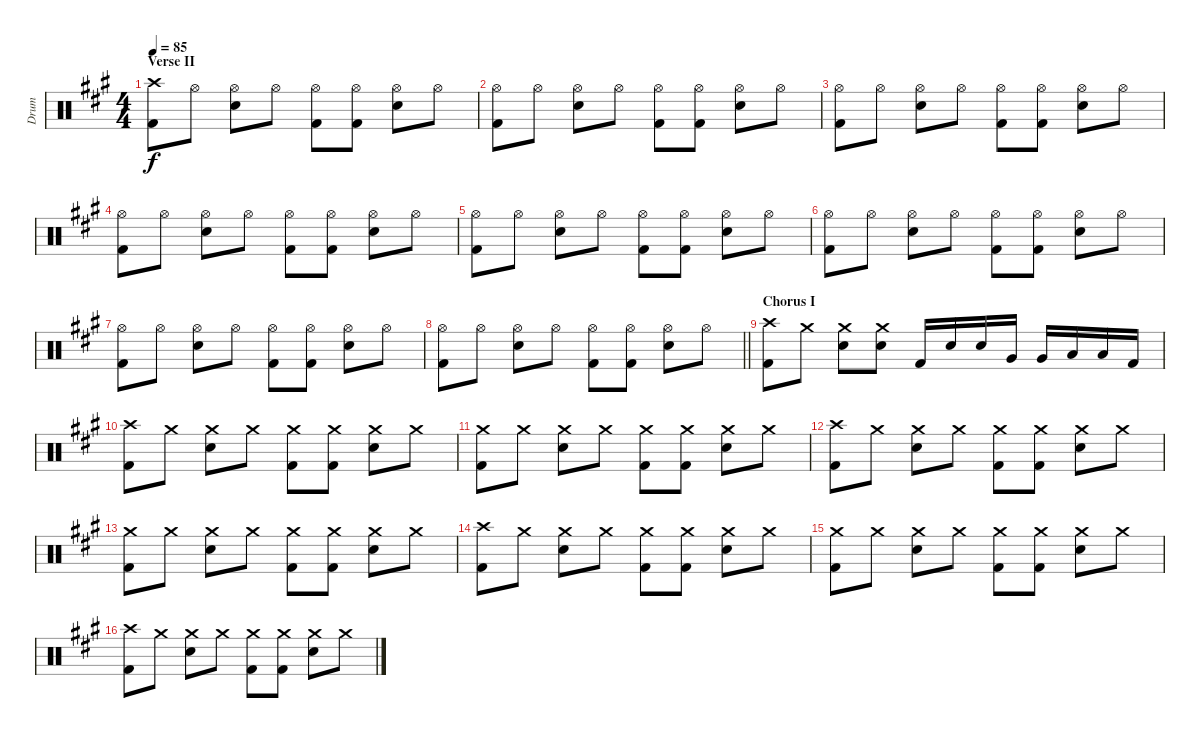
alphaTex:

\track ("Drum" "Drum") {instrument percussion}
\staff {score}
\articulation defaults
\ts (4 4)
\section ("" "Verse II")
\tempo 85
\clef neutral
\ks a
("Crash high (hit)" "Kick (hit) 2").8{dy f} "Hi-Hat (open)".8 ("Hi-Hat (open)" "Snare (hit) 2").8 "Hi-Hat (open)".8 ("Hi-Hat (open)" "Kick (hit) 2").8 ("Hi-Hat (open)" "Kick (hit) 2").8 ("Hi-Hat (open)" "Snare (hit) 2").8 "Hi-Hat (open)".8 |
("Hi-Hat (open)" "Kick (hit) 2").8 "Hi-Hat (open)".8 ("Hi-Hat (open)" "Snare (hit) 2").8 "Hi-Hat (open)".8 ("Hi-Hat (open)" "Kick (hit) 2").8 ("Hi-Hat (open)" "Kick (hit) 2").8 ("Hi-Hat (open)" "Snare (hit) 2").8 "Hi-Hat (open)".8 |
("Hi-Hat (open)" "Kick (hit) 2").8 "Hi-Hat (open)".8 ("Hi-Hat (open)" "Snare (hit) 2").8 "Hi-Hat (open)".8 ("Hi-Hat (open)" "Kick (hit) 2").8 ("Hi-Hat (open)" "Kick (hit) 2").8 ("Hi-Hat (open)" "Snare (hit) 2").8 "Hi-Hat (open)".8 |
("Hi-Hat (open)" "Kick (hit) 2").8 "Hi-Hat (open)".8 ("Hi-Hat (open)" "Snare (hit) 2").8 "Hi-Hat (open)".8 ("Hi-Hat (open)" "Kick (hit) 2").8 ("Hi-Hat (open)" "Kick (hit) 2").8 ("Hi-Hat (open)" "Snare (hit) 2").8 "Hi-Hat (open)".8 |
("Hi-Hat (open)" "Kick (hit) 2").8 "Hi-Hat (open)".8 ("Hi-Hat (open)" "Snare (hit) 2").8 "Hi-Hat (open)".8 ("Hi-Hat (open)" "Kick (hit) 2").8 ("Hi-Hat (open)" "Kick (hit) 2").8 ("Hi-Hat (open)" "Snare (hit) 2").8 "Hi-Hat (open)".8 |
("Hi-Hat (open)" "Kick (hit) 2").8 "Hi-Hat (open)".8 ("Hi-Hat (open)" "Snare (hit) 2").8 "Hi-Hat (open)".8 ("Hi-Hat (open)" "Kick (hit) 2").8 ("Hi-Hat (open)" "Kick (hit) 2").8 ("Hi-Hat (open)" "Snare (hit) 2").8 "Hi-Hat (open)".8 |
("Hi-Hat (open)" "Kick (hit) 2").8 "Hi-Hat (open)".8 ("Hi-Hat (open)" "Snare (hit) 2").8 "Hi-Hat (open)".8 ("Hi-Hat (open)" "Kick (hit) 2").8 ("Hi-Hat (open)" "Kick (hit) 2").8 ("Hi-Hat (open)" "Snare (hit) 2").8 "Hi-Hat (open)".8 |
\barLineRight lightlight
("Hi-Hat (open)" "Kick (hit) 2").8 "Hi-Hat (open)".8 ("Hi-Hat (open)" "Snare (hit) 2").8 "Hi-Hat (open)".8 ("Hi-Hat (open)" "Kick (hit) 2").8 ("Hi-Hat (open)" "Kick (hit) 2").8 ("Hi-Hat (open)" "Snare (hit) 2").8 "Hi-Hat (open)".8 |
\section ("" "Chorus I")
("Crash high (hit)" "Kick (hit) 2").8 "Crash medium (hit)".8 ("Snare (hit) 2" "Crash medium (hit)").8 ("Snare (hit) 2" "Crash medium (hit)").8 "Kick (hit) 2".16 "Snare (hit) 2".16 "Snare (hit) 2".16 "Very Low Tom (hit)".16 "Very Low Tom (hit)".16 "Low Floor Tom (hit)".16 "Low Floor Tom (hit)".16 "Kick (hit) 2".16 |
("Crash high (hit)" "Kick (hit) 2").8 "Crash medium (hit)".8 ("Crash medium (hit)" "Snare (hit) 2").8 "Crash medium (hit)".8 ("Crash medium (hit)" "Kick (hit) 2").8 ("Crash medium (hit)" "Kick (hit) 2").8 ("Crash medium (hit)" "Snare (hit) 2").8 "Crash medium (hit)".8 |
("Crash medium (hit)" "Kick (hit) 2").8 "Crash medium (hit)".8 ("Crash medium (hit)" "Snare (hit) 2").8 "Crash medium (hit)".8 ("Crash medium (hit)" "Kick (hit) 2").8 ("Crash medium (hit)" "Kick (hit) 2").8 ("Crash medium (hit)" "Snare (hit) 2").8 "Crash medium (hit)".8 |
("Crash high (hit)" "Kick (hit) 2").8 "Crash medium (hit)".8 ("Snare (hit) 2" "Crash medium (hit)").8 "Crash medium (hit)".8 ("Kick (hit) 2" "Crash medium (hit)").8 ("Kick (hit) 2" "Crash medium (hit)").8 ("Snare (hit) 2" "Crash medium (hit)").8 "Crash medium (hit)".8 |
("Crash medium (hit)" "Kick (hit) 2").8 "Crash medium (hit)".8 ("Snare (hit) 2" "Crash medium (hit)").8 "Crash medium (hit)".8 ("Kick (hit) 2" "Crash medium (hit)").8 ("Kick (hit) 2" "Crash medium (hit)").8 ("Snare (hit) 2" "Crash medium (hit)").8 "Crash medium (hit)".8 |
("Crash high (hit)" "Kick (hit) 2").8 "Crash medium (hit)".8 ("Snare (hit) 2" "Crash medium (hit)").8 "Crash medium (hit)".8 ("Crash medium (hit)" "Kick (hit) 2").8 ("Crash medium (hit)" "Kick (hit) 2").8 ("Crash medium (hit)" "Snare (hit) 2").8 "Crash medium (hit)".8 |
("Crash medium (hit)" "Kick (hit) 2").8 "Crash medium (hit)".8 ("Crash medium (hit)" "Snare (hit) 2").8 "Crash medium (hit)".8 ("Crash medium (hit)" "Kick (hit) 2").8 ("Crash medium (hit)" "Kick (hit) 2").8 ("Crash medium (hit)" "Snare (hit) 2").8 "Crash medium (hit)".8 |
("Crash high (hit)" "Kick (hit) 2").8 "Crash medium (hit)".8 ("Crash medium (hit)" "Snare (hit) 2").8 "Crash medium (hit)".8 ("Crash medium (hit)" "Kick (hit) 2").8 ("Crash medium (hit)" "Kick (hit) 2").8 ("Crash medium (hit)" "Snare (hit) 2").8 "Crash medium (hit)".8
